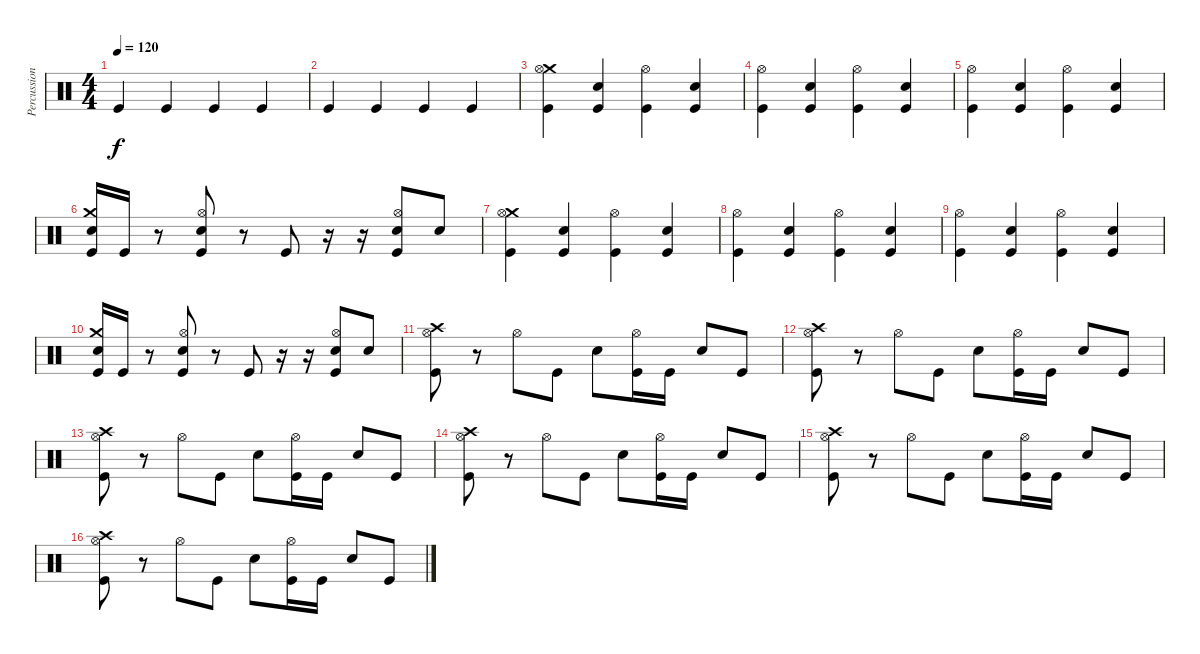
\track ("Percussion" "Percussion") {instrument percussion}
\staff {score}
\articulation defaults
\ts (4 4)
\tempo 120
\clef neutral
\ks c "Kick (hit)".4{dy f} "Kick (hit)".4 "Kick (hit)".4 "Kick (hit)".4
|
"Kick (hit)".4 "Kick (hit)".4 "Kick (hit)".4 "Kick (hit)".4 |
("Crash medium (hit)" "Hi-Hat (open)" "Kick (hit)").4 ("Electric Snare (hit)" "Kick (hit)").4 ("Hi-Hat (open)" "Kick (hit)").4 ("Electric Snare (hit)" "Kick (hit)").4 |
("Hi-Hat (open)" "Kick (hit)").4 ("Electric Snare (hit)" "Kick (hit)").4 ("Hi-Hat (open)" "Kick (hit)").4 ("Electric Snare (hit)" "Kick (hit)").4 |
("Hi-Hat (open)" "Kick (hit)").4 ("Electric Snare (hit)" "Kick (hit)").4 ("Hi-Hat (open)" "Kick (hit)").4 ("Electric Snare (hit)" "Kick (hit)").4 |
("Crash medium (hit)" "Electric Snare (hit)" "Kick (hit)").16 "Kick (hit)".16 r.8 ("Hi-Hat (open)" "Electric Snare (hit)" "Kick (hit)").8 r.8 "Kick (hit)".8 r.16 r.16 ("Hi-Hat (open)" "Electric Snare (hit)" "Kick (hit)").8 "Electric Snare (hit)".8 |
("Crash medium (hit)" "Hi-Hat (open)" "Kick (hit)").4 ("Electric Snare (hit)" "Kick (hit)").4 ("Hi-Hat (open)" "Kick (hit)").4 ("Electric Snare (hit)" "Kick (hit)").4 |
("Hi-Hat (open)" "Kick (hit)").4 ("Electric Snare (hit)" "Kick (hit)").4 ("Hi-Hat (open)" "Kick (hit)").4 ("Electric Snare (hit)" "Kick (hit)").4 |
("Hi-Hat (open)" "Kick (hit)").4 ("Electric Snare (hit)" "Kick (hit)").4 ("Hi-Hat (open)" "Kick (hit)").4 ("Electric Snare (hit)" "Kick (hit)").4 |
("Crash medium (hit)" "Electric Snare (hit)" "Kick (hit)").16 "Kick (hit)".16 r.8 ("Hi-Hat (open)" "Electric Snare (hit)" "Kick (hit)").8 r.8 "Kick (hit)".8 r.16 r.16 ("Hi-Hat (open)" "Electric Snare (hit)" "Kick (hit)").8 "Electric Snare (hit)".8 |
("Crash high (hit)" "Hi-Hat (open)" "Kick (hit)").8 r.8 "Hi-Hat (open)".8 "Kick (hit)".8 "Electric Snare (hit)".8 ("Hi-Hat (open)" "Kick (hit)").16 "Kick (hit)".16 "Electric Snare (hit)".8 "Kick (hit)".8 |
("Crash high (hit)" "Hi-Hat (open)" "Kick (hit)").8 r.8 "Hi-Hat (open)".8 "Kick (hit)".8 "Electric Snare (hit)".8 ("Hi-Hat (open)" "Kick (hit)").16 "Kick (hit)".16 "Electric Snare (hit)".8 "Kick (hit)".8 |
("Crash high (hit)" "Hi-Hat (open)" "Kick (hit)").8 r.8 "Hi-Hat (open)".8 "Kick (hit)".8 "Electric Snare (hit)".8 ("Hi-Hat (open)" "Kick (hit)").16 "Kick (hit)".16 "Electric Snare (hit)".8 "Kick (hit)".8 |
("Crash high (hit)" "Hi-Hat (open)" "Kick (hit)").8 r.8 "Hi-Hat (open)".8 "Kick (hit)".8 "Electric Snare (hit)".8 ("Hi-Hat (open)" "Kick (hit)").16 "Kick (hit)".16 "Electric Snare (hit)".8 "Kick (hit)".8 |
("Crash high (hit)" "Hi-Hat (open)" "Kick (hit)").8 r.8 "Hi-Hat (open)".8 "Kick (hit)".8 "Electric Snare (hit)".8 ("Hi-Hat (open)" "Kick (hit)").16 "Kick (hit)".16 "Electric Snare (hit)".8 "Kick (hit)".8 |
("Crash high (hit)" "Hi-Hat (open)" "Kick (hit)").8 r.8 "Hi-Hat (open)".8 "Kick (hit)".8 "Electric Snare (hit)".8 ("Hi-Hat (open)" "Kick (hit)").16 "Kick (hit)".16 "Electric Snare (hit)".8 "Kick (hit)".8
